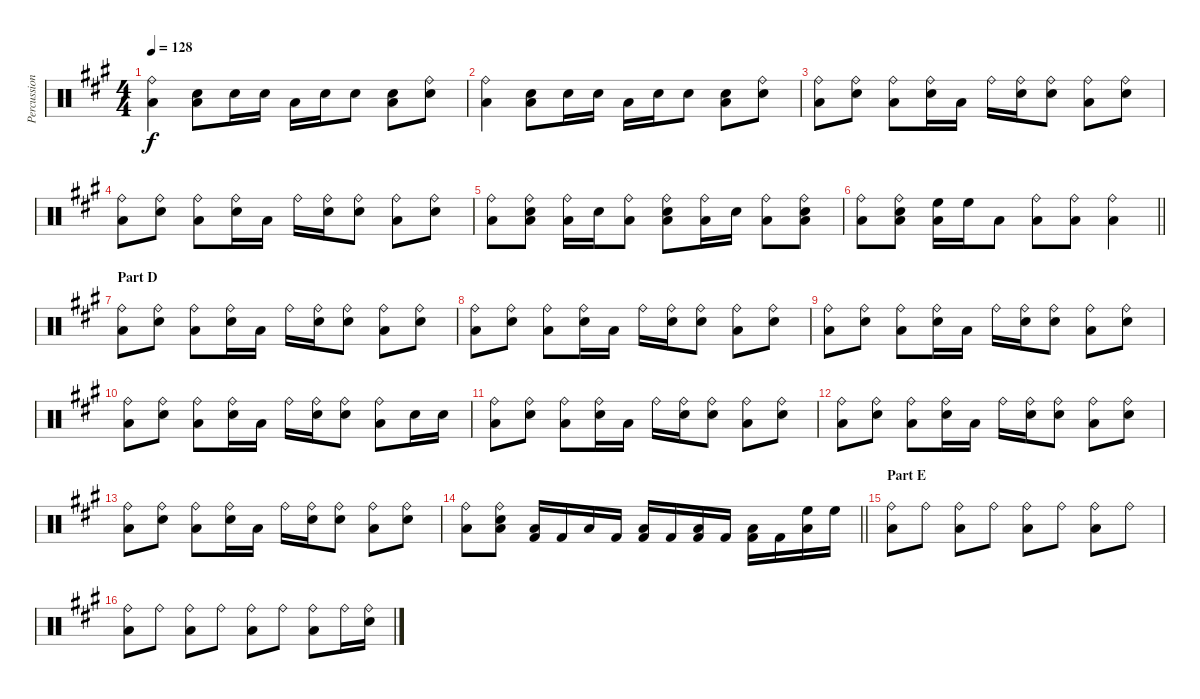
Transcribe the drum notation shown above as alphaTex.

\track ("Percussions" "Percussion") {instrument percussion}
\staff {score}
\articulation defaults
\ts (4 4)
\tempo 128
\clef neutral
\ks a
("Ride (bell)" "Low Floor Tom (hit)").4{dy f} ("Snare (hit) 2" "Low Floor Tom (hit)").8 "Snare (hit) 2".16 "Snare (hit) 2".16 "Low Floor Tom (hit)".16 "Snare (hit) 2".16 "Snare (hit) 2".8 ("Snare (hit) 2" "Low Floor Tom (hit)").8 ("Ride (bell)" "Snare (hit) 2").8 |
("Ride (bell)" "Low Floor Tom (hit)").4 ("Snare (hit) 2" "Low Floor Tom (hit)").8 "Snare (hit) 2".16 "Snare (hit) 2".16 "Low Floor Tom (hit)".16 "Snare (hit) 2".16 "Snare (hit) 2".8 ("Snare (hit) 2" "Low Floor Tom (hit)").8 ("Ride (bell)" "Snare (hit) 2").8 |
("Ride (bell)" "Low Floor Tom (hit)").8 ("Ride (bell)" "Snare (hit) 2").8 ("Ride (bell)" "Low Floor Tom (hit)").8 ("Ride (bell)" "Snare (hit) 2").16 "Low Floor Tom (hit)".16 "Ride (bell)".16 ("Ride (bell)" "Snare (hit) 2").16 ("Ride (bell)" "Snare (hit) 2").8 ("Ride (bell)" "Low Floor Tom (hit)").8 ("Ride (bell)" "Snare (hit) 2").8 |
("Ride (bell)" "Low Floor Tom (hit)").8 ("Ride (bell)" "Snare (hit) 2").8 ("Ride (bell)" "Low Floor Tom (hit)").8 ("Ride (bell)" "Snare (hit) 2").16 "Low Floor Tom (hit)".16 "Ride (bell)".16 ("Ride (bell)" "Snare (hit) 2").16 ("Ride (bell)" "Snare (hit) 2").8 ("Ride (bell)" "Low Floor Tom (hit)").8 ("Ride (bell)" "Snare (hit) 2").8 |
("Ride (bell)" "Low Floor Tom (hit)").8 ("Ride (bell)" "Snare (hit) 2" "Low Floor Tom (hit)").8 ("Ride (bell)" "Low Floor Tom (hit)").16 "Snare (hit) 2".16 ("Ride (bell)" "Low Floor Tom (hit)").8 ("Ride (bell)" "Snare (hit) 2" "Low Floor Tom (hit)").8 ("Ride (bell)" "Low Floor Tom (hit)").16 "Snare (hit) 2".16 ("Ride (bell)" "Low Floor Tom (hit)").8 ("Ride (bell)" "Snare (hit) 2" "Low Floor Tom (hit)").8 |
\barLineRight lightlight
("Ride (bell)" "Low Floor Tom (hit)").8 ("Ride (bell)" "Snare (hit) 2" "Low Floor Tom (hit)").8 ("High Floor Tom (hit)" "Low Floor Tom (hit)").16 "High Floor Tom (hit)".16 "Low Floor Tom (hit)".8 ("Ride (bell)" "Low Floor Tom (hit)").8 ("Ride (bell)" "Low Floor Tom (hit)").8 ("Ride (bell)" "Low Floor Tom (hit)").4 |
\section ("" "Part D")
("Ride (bell)" "Low Floor Tom (hit)").8 ("Ride (bell)" "Snare (hit) 2").8 ("Ride (bell)" "Low Floor Tom (hit)").8 ("Ride (bell)" "Snare (hit) 2").16 "Low Floor Tom (hit)".16 "Ride (bell)".16 ("Ride (bell)" "Snare (hit) 2").16 ("Ride (bell)" "Snare (hit) 2").8 ("Ride (bell)" "Low Floor Tom (hit)").8 ("Ride (bell)" "Snare (hit) 2").8 |
("Ride (bell)" "Low Floor Tom (hit)").8 ("Ride (bell)" "Snare (hit) 2").8 ("Ride (bell)" "Low Floor Tom (hit)").8 ("Ride (bell)" "Snare (hit) 2").16 "Low Floor Tom (hit)".16 "Ride (bell)".16 ("Ride (bell)" "Snare (hit) 2").16 ("Ride (bell)" "Snare (hit) 2").8 ("Ride (bell)" "Low Floor Tom (hit)").8 ("Ride (bell)" "Snare (hit) 2").8 |
("Ride (bell)" "Low Floor Tom (hit)").8 ("Ride (bell)" "Snare (hit) 2").8 ("Ride (bell)" "Low Floor Tom (hit)").8 ("Ride (bell)" "Snare (hit) 2").16 "Low Floor Tom (hit)".16 "Ride (bell)".16 ("Ride (bell)" "Snare (hit) 2").16 ("Ride (bell)" "Snare (hit) 2").8 ("Ride (bell)" "Low Floor Tom (hit)").8 ("Ride (bell)" "Snare (hit) 2").8 |
("Ride (bell)" "Low Floor Tom (hit)").8 ("Ride (bell)" "Snare (hit) 2").8 ("Ride (bell)" "Low Floor Tom (hit)").8 ("Ride (bell)" "Snare (hit) 2").16 "Low Floor Tom (hit)".16 "Ride (bell)".16 ("Ride (bell)" "Snare (hit) 2").16 ("Ride (bell)" "Snare (hit) 2").8 ("Ride (bell)" "Low Floor Tom (hit)").8 "Snare (hit) 2".16 "Snare (hit) 2".16 |
("Ride (bell)" "Low Floor Tom (hit)").8 ("Ride (bell)" "Snare (hit) 2").8 ("Ride (bell)" "Low Floor Tom (hit)").8 ("Ride (bell)" "Snare (hit) 2").16 "Low Floor Tom (hit)".16 "Ride (bell)".16 ("Ride (bell)" "Snare (hit) 2").16 ("Ride (bell)" "Snare (hit) 2").8 ("Ride (bell)" "Low Floor Tom (hit)").8 ("Ride (bell)" "Snare (hit) 2").8 |
("Ride (bell)" "Low Floor Tom (hit)").8 ("Ride (bell)" "Snare (hit) 2").8 ("Ride (bell)" "Low Floor Tom (hit)").8 ("Ride (bell)" "Snare (hit) 2").16 "Low Floor Tom (hit)".16 "Ride (bell)".16 ("Ride (bell)" "Snare (hit) 2").16 ("Ride (bell)" "Snare (hit) 2").8 ("Ride (bell)" "Low Floor Tom (hit)").8 ("Ride (bell)" "Snare (hit) 2").8 |
("Ride (bell)" "Low Floor Tom (hit)").8 ("Ride (bell)" "Snare (hit) 2").8 ("Ride (bell)" "Low Floor Tom (hit)").8 ("Ride (bell)" "Snare (hit) 2").16 "Low Floor Tom (hit)".16 "Ride (bell)".16 ("Ride (bell)" "Snare (hit) 2").16 ("Ride (bell)" "Snare (hit) 2").8 ("Ride (bell)" "Low Floor Tom (hit)").8 ("Ride (bell)" "Snare (hit) 2").8 |
\barLineRight lightlight
("Ride (bell)" "Low Floor Tom (hit)").8 ("Ride (bell)" "Snare (hit) 2" "Low Floor Tom (hit)").8 ("Kick (hit) 2" "Low Floor Tom (hit)").16 "Kick (hit) 2".16 "Low Floor Tom (hit)".16 "Kick (hit) 2".16 ("Kick (hit) 2" "Low Floor Tom (hit)").16 "Kick (hit) 2".16 ("Low Floor Tom (hit)" "Kick (hit) 2").16 "Kick (hit) 2".16 ("Kick (hit) 2" "Low Floor Tom (hit)").16 "Kick (hit) 2".16 ("High Floor Tom (hit)" "Low Floor Tom (hit)").16 "High Floor Tom (hit)".16 |
\section ("" "Part E")
("Ride (bell)" "Low Floor Tom (hit)").8 "Ride (bell)".8 ("Low Floor Tom (hit)" "Ride (bell)").8 "Ride (bell)".8 ("Ride (bell)" "Low Floor Tom (hit)").8 "Ride (bell)".8 ("Low Floor Tom (hit)" "Ride (bell)").8 "Ride (bell)".8 |
("Ride (bell)" "Low Floor Tom (hit)").8 "Ride (bell)".8 ("Low Floor Tom (hit)" "Ride (bell)").8 "Ride (bell)".8 ("Ride (bell)" "Low Floor Tom (hit)").8 "Ride (bell)".8 ("Low Floor Tom (hit)" "Ride (bell)").8 "Ride (bell)".16 ("Ride (bell)" "Snare (hit) 2").16
